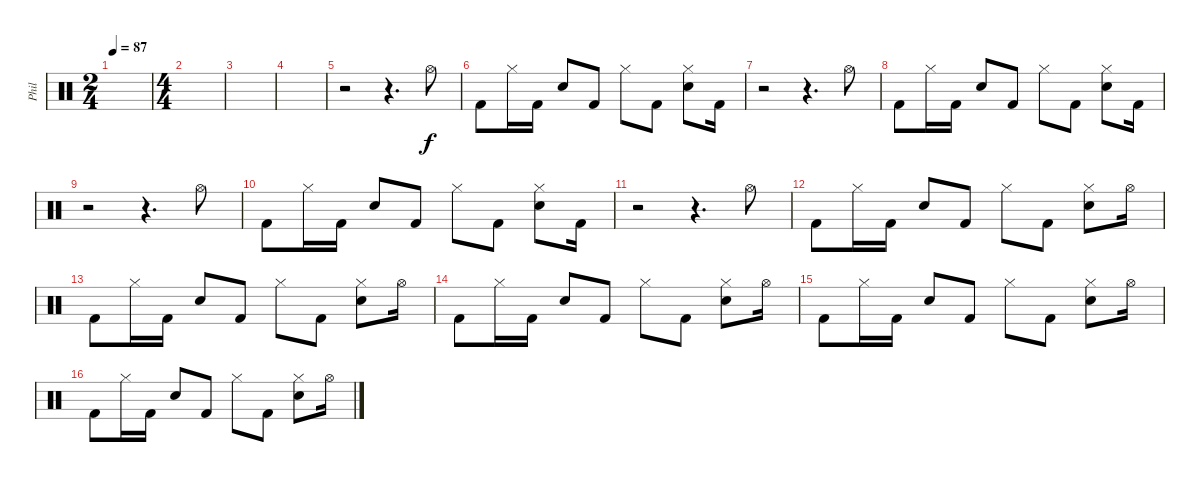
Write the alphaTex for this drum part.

\track ("Phil" "Phil") {instrument percussion}
\staff {score}
\articulation defaults
\ts (2 4)
\tempo 87
\clef neutral
\ks c
|
\ts (4 4)
|
|
|
r.2 r.4{d} "Hi-Hat (open)".8 |
"Kick (hit) 2".8 "Hi-Hat (closed)".16 "Kick (hit) 2".16 "Snare (hit) 2".8 "Kick (hit) 2".8 "Hi-Hat (closed)".8 "Kick (hit) 2".8 ("Snare (hit) 2" "Hi-Hat (closed)").8 "Kick (hit) 2".16 |
r.2 r.4{d} "Hi-Hat (open)".8 |
"Kick (hit) 2".8 "Hi-Hat (closed)".16 "Kick (hit) 2".16 "Snare (hit) 2".8 "Kick (hit) 2".8 "Hi-Hat (closed)".8 "Kick (hit) 2".8 ("Snare (hit) 2" "Hi-Hat (closed)").8 "Kick (hit) 2".16 |
r.2 r.4{d} "Hi-Hat (open)".8 |
"Kick (hit) 2".8 "Hi-Hat (closed)".16 "Kick (hit) 2".16 "Snare (hit) 2".8 "Kick (hit) 2".8 "Hi-Hat (closed)".8 "Kick (hit) 2".8 ("Snare (hit) 2" "Hi-Hat (closed)").8 "Kick (hit) 2".16 |
r.2 r.4{d} "Hi-Hat (open)".8 |
"Kick (hit) 2".8 "Hi-Hat (closed)".16 "Kick (hit) 2".16 "Snare (hit) 2".8 "Kick (hit) 2".8 "Hi-Hat (closed)".8 "Kick (hit) 2".8 ("Snare (hit) 2" "Hi-Hat (closed)").8 "Hi-Hat (open)".16 |
"Kick (hit) 2".8 "Hi-Hat (closed)".16 "Kick (hit) 2".16 "Snare (hit) 2".8 "Kick (hit) 2".8 "Hi-Hat (closed)".8 "Kick (hit) 2".8 ("Snare (hit) 2" "Hi-Hat (closed)").8 "Hi-Hat (open)".16 |
"Kick (hit) 2".8 "Hi-Hat (closed)".16 "Kick (hit) 2".16 "Snare (hit) 2".8 "Kick (hit) 2".8 "Hi-Hat (closed)".8 "Kick (hit) 2".8 ("Snare (hit) 2" "Hi-Hat (closed)").8 "Hi-Hat (open)".16 |
"Kick (hit) 2".8 "Hi-Hat (closed)".16 "Kick (hit) 2".16 "Snare (hit) 2".8 "Kick (hit) 2".8 "Hi-Hat (closed)".8 "Kick (hit) 2".8 ("Snare (hit) 2" "Hi-Hat (closed)").8 "Hi-Hat (open)".16 |
"Kick (hit) 2".8 "Hi-Hat (closed)".16 "Kick (hit) 2".16 "Snare (hit) 2".8 "Kick (hit) 2".8 "Hi-Hat (closed)".8 "Kick (hit) 2".8 ("Snare (hit) 2" "Hi-Hat (closed)").8 "Hi-Hat (open)".16
